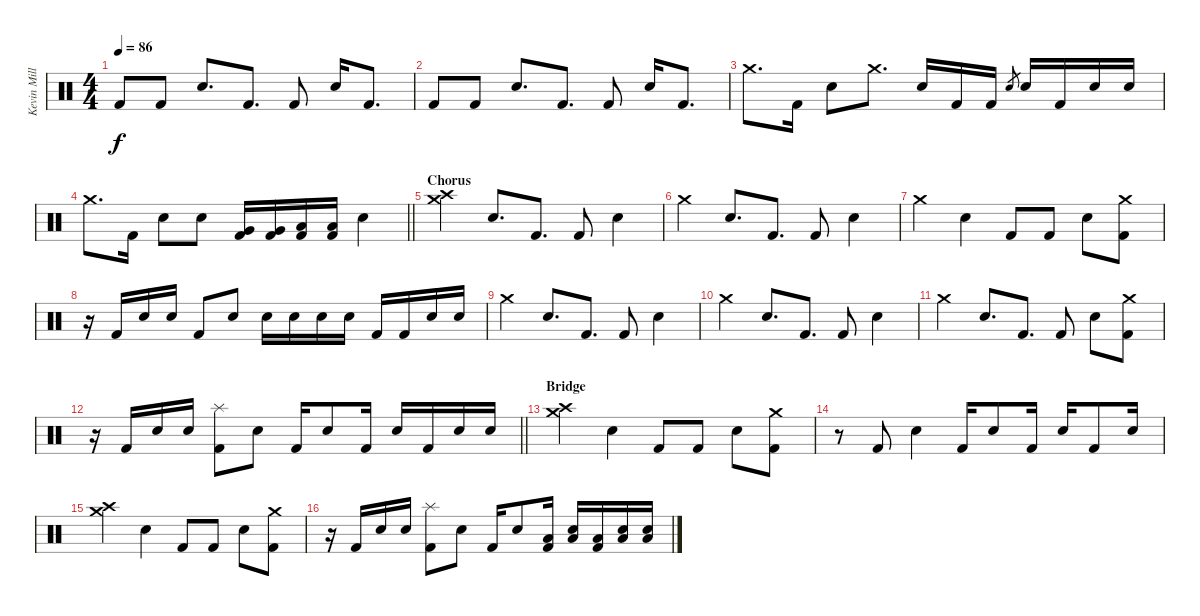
\track ("Kevin Miller (Drums)" "Kevin Mill") {instrument percussion}
\staff {score}
\articulation defaults
\ts (4 4)
\tempo 86
\clef neutral
\ks c "Kick (hit) 2".8{dy f} "Kick (hit) 2".8 "Electric Snare (hit)".8{d} "Kick (hit) 2".8{d} "Kick (hit) 2".8 "Electric Snare (hit)".16 "Kick (hit) 2".8{d}
|
"Kick (hit) 2".8 "Kick (hit) 2".8 "Electric Snare (hit)".8{d} "Kick (hit) 2".8{d} "Kick (hit) 2".8 "Electric Snare (hit)".16 "Kick (hit) 2".8{d} |
"Crash medium (hit)".8{d} "Kick (hit) 2".16 "Electric Snare (hit)".8 "Crash medium (hit)".8{d} "Electric Snare (hit)".16 "Kick (hit) 2".16 "Kick (hit) 2".16 "Electric Snare (hit)".8{gr} "Electric Snare (hit)".16 "Kick (hit) 2".16 "Electric Snare (hit)".16 "Electric Snare (hit)".16 |
\barLineRight lightlight "Crash medium (hit)".8{d} "Kick (hit) 2".16 "Electric Snare (hit)".8 "Electric Snare (hit)".8
("Very Low Tom (hit)" "Kick (hit) 2").16 ("Very Low Tom (hit)" "Kick (hit) 2").16 ("Low Tom (hit)" "Kick (hit) 2").16 ("Low Tom (hit)" "Kick (hit) 2").16 "Electric Snare (hit)".4 |
\section ("" "Chorus")
("Crash medium (hit)" "Crash high (hit)").4 "Electric Snare (hit)".8{d} "Kick (hit) 2".8{d} "Kick (hit) 2".8 "Electric Snare (hit)".4 |
"Crash medium (hit)".4 "Electric Snare (hit)".8{d} "Kick (hit) 2".8{d} "Kick (hit) 2".8 "Electric Snare (hit)".4 |
"Crash medium (hit)".4 "Electric Snare (hit)".4 "Kick (hit) 2".8 "Kick (hit) 2".8 "Electric Snare (hit)".8 ("Crash medium (hit)" "Kick (hit) 2").8 |
r.16 "Kick (hit) 2".16 "Electric Snare (hit)".16 "Electric Snare (hit)".16 "Kick (hit) 2".8 "Electric Snare (hit)".8 "Snare (hit) 2".16 "Snare (hit) 2".16 "Snare (hit) 2".16 "Snare (hit) 2".16 "Kick (hit) 2".16 "Kick (hit) 2".16 "Electric Snare (hit)".16 "Electric Snare (hit)".16 |
"Crash medium (hit)".4 "Electric Snare (hit)".8{d} "Kick (hit) 2".8{d} "Kick (hit) 2".8 "Electric Snare (hit)".4 |
"Crash medium (hit)".4 "Electric Snare (hit)".8{d} "Kick (hit) 2".8{d} "Kick (hit) 2".8 "Electric Snare (hit)".4 |
"Crash medium (hit)".4 "Electric Snare (hit)".8{d} "Kick (hit) 2".8{d} "Kick (hit) 2".8 "Electric Snare (hit)".8 ("Crash medium (hit)" "Kick (hit) 2").8 |
\barLineRight lightlight
r.16 "Kick (hit) 2".16 "Electric Snare (hit)".16 "Electric Snare (hit)".16 ("Splash (hit)" "Kick (hit) 2").8 "Electric Snare (hit)".8 "Kick (hit) 2".16 "Electric Snare (hit)".8 "Kick (hit) 2".16 "Electric Snare (hit)".16 "Kick (hit) 2".16 "Electric Snare (hit)".16 "Electric Snare (hit)".16 |
\section ("" "Bridge")
("Crash medium (hit)" "Crash high (hit)").4 "Electric Snare (hit)".4 "Kick (hit) 2".8 "Kick (hit) 2".8 "Electric Snare (hit)".8 ("Kick (hit) 2" "Crash medium (hit)").8 |
r.8 "Kick (hit) 2".8 "Electric Snare (hit)".4 "Kick (hit) 2".16 "Electric Snare (hit)".8 "Kick (hit) 2".16 "Electric Snare (hit)".16 "Kick (hit) 2".8 "Electric Snare (hit)".16 |
("Crash medium (hit)" "Crash high (hit)").4 "Electric Snare (hit)".4 "Kick (hit) 2".8 "Kick (hit) 2".8 "Electric Snare (hit)".8 ("Kick (hit) 2" "Crash medium (hit)").8 |
r.16 "Kick (hit) 2".16 "Electric Snare (hit)".16 "Electric Snare (hit)".16 ("Splash (hit)" "Kick (hit) 2").8 "Electric Snare (hit)".8 "Kick (hit) 2".16 "Electric Snare (hit)".8 ("Kick (hit) 2" "Low Tom (hit)").16 ("Electric Snare (hit)" "Low Tom (hit)").16 ("Kick (hit) 2" "Low Tom (hit)").16 ("Electric Snare (hit)" "Low Tom (hit)").16 ("Electric Snare (hit)" "Low Tom (hit)").16
